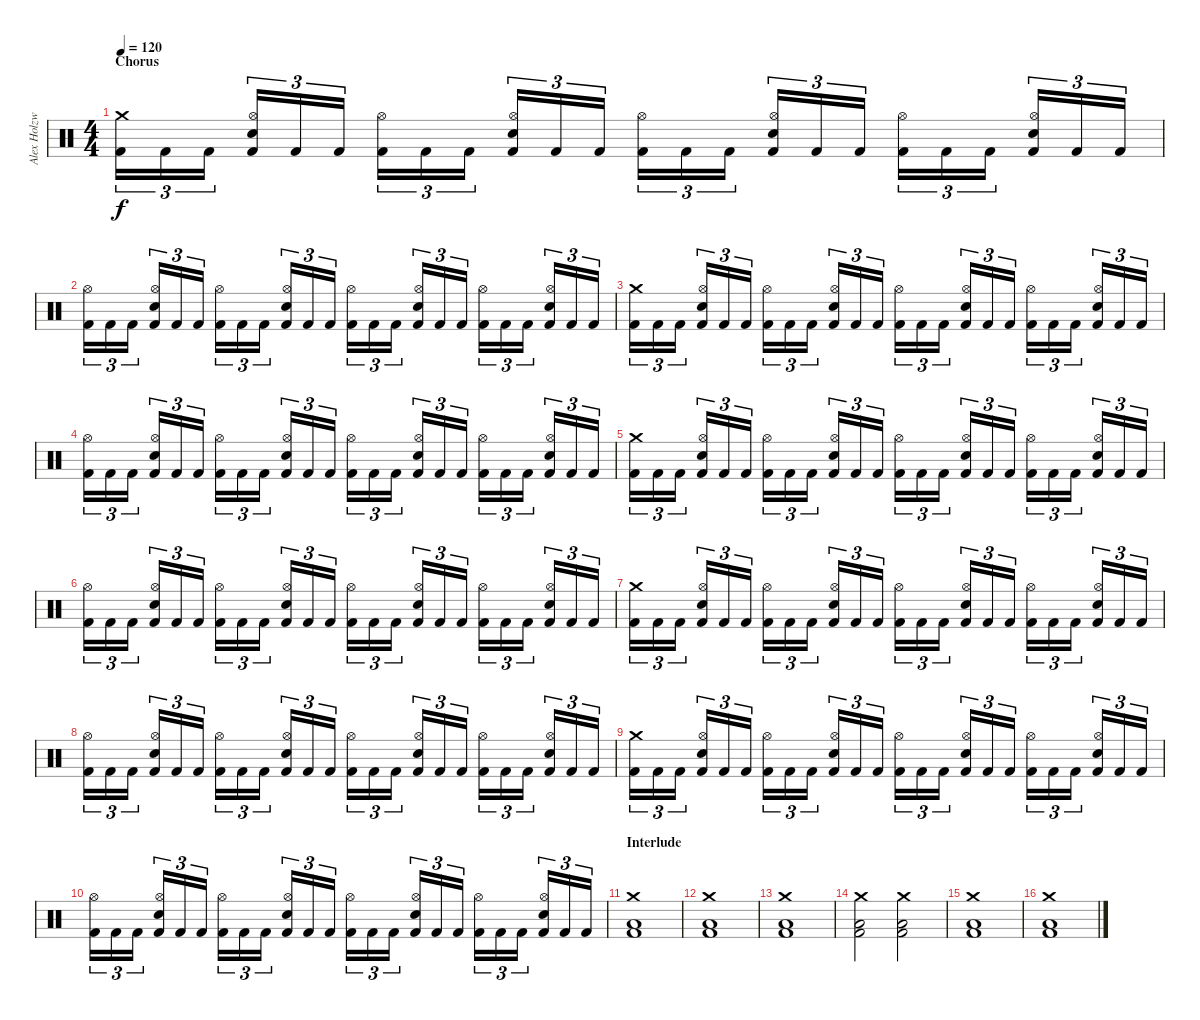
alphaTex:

\track ("Alex Holzwarth - Drums" "Alex Holzw") {instrument percussion}
\staff {score}
\articulation defaults
\ts (4 4)
\section ("" "Chorus")
\tempo 120
\clef neutral
\ks c
("Crash medium (hit)" "Kick (hit) 2").16{tu (3 2) dy f} "Kick (hit) 2".16{tu (3 2)} "Kick (hit) 2".16{tu (3 2)} ("Hi-Hat (open)" "Electric Snare (hit)" "Kick (hit) 2").16{tu (3 2)} "Kick (hit) 2".16{tu (3 2)} "Kick (hit) 2".16{tu (3 2)} ("Hi-Hat (open)" "Kick (hit) 2").16{tu (3 2)} "Kick (hit) 2".16{tu (3 2)} "Kick (hit) 2".16{tu (3 2)} ("Hi-Hat (open)" "Electric Snare (hit)" "Kick (hit) 2").16{tu (3 2)} "Kick (hit) 2".16{tu (3 2)} "Kick (hit) 2".16{tu (3 2)} ("Hi-Hat (open)" "Kick (hit) 2").16{tu (3 2)} "Kick (hit) 2".16{tu (3 2)} "Kick (hit) 2".16{tu (3 2)} ("Hi-Hat (open)" "Electric Snare (hit)" "Kick (hit) 2").16{tu (3 2)} "Kick (hit) 2".16{tu (3 2)} "Kick (hit) 2".16{tu (3 2)} ("Hi-Hat (open)" "Kick (hit) 2").16{tu (3 2)} "Kick (hit) 2".16{tu (3 2)} "Kick (hit) 2".16{tu (3 2)} ("Hi-Hat (open)" "Electric Snare (hit)" "Kick (hit) 2").16{tu (3 2)} "Kick (hit) 2".16{tu (3 2)} "Kick (hit) 2".16{tu (3 2)} |
("Hi-Hat (open)" "Kick (hit) 2").16{tu (3 2)} "Kick (hit) 2".16{tu (3 2)} "Kick (hit) 2".16{tu (3 2)} ("Hi-Hat (open)" "Electric Snare (hit)" "Kick (hit) 2").16{tu (3 2)} "Kick (hit) 2".16{tu (3 2)} "Kick (hit) 2".16{tu (3 2)} ("Hi-Hat (open)" "Kick (hit) 2").16{tu (3 2)} "Kick (hit) 2".16{tu (3 2)} "Kick (hit) 2".16{tu (3 2)} ("Hi-Hat (open)" "Electric Snare (hit)" "Kick (hit) 2").16{tu (3 2)} "Kick (hit) 2".16{tu (3 2)} "Kick (hit) 2".16{tu (3 2)} ("Hi-Hat (open)" "Kick (hit) 2").16{tu (3 2)} "Kick (hit) 2".16{tu (3 2)} "Kick (hit) 2".16{tu (3 2)} ("Hi-Hat (open)" "Electric Snare (hit)" "Kick (hit) 2").16{tu (3 2)} "Kick (hit) 2".16{tu (3 2)} "Kick (hit) 2".16{tu (3 2)} ("Hi-Hat (open)" "Kick (hit) 2").16{tu (3 2)} "Kick (hit) 2".16{tu (3 2)} "Kick (hit) 2".16{tu (3 2)} ("Hi-Hat (open)" "Electric Snare (hit)" "Kick (hit) 2").16{tu (3 2)} "Kick (hit) 2".16{tu (3 2)} "Kick (hit) 2".16{tu (3 2)} |
("Crash medium (hit)" "Kick (hit) 2").16{tu (3 2)} "Kick (hit) 2".16{tu (3 2)} "Kick (hit) 2".16{tu (3 2)} ("Hi-Hat (open)" "Electric Snare (hit)" "Kick (hit) 2").16{tu (3 2)} "Kick (hit) 2".16{tu (3 2)} "Kick (hit) 2".16{tu (3 2)} ("Hi-Hat (open)" "Kick (hit) 2").16{tu (3 2)} "Kick (hit) 2".16{tu (3 2)} "Kick (hit) 2".16{tu (3 2)} ("Hi-Hat (open)" "Electric Snare (hit)" "Kick (hit) 2").16{tu (3 2)} "Kick (hit) 2".16{tu (3 2)} "Kick (hit) 2".16{tu (3 2)} ("Hi-Hat (open)" "Kick (hit) 2").16{tu (3 2)} "Kick (hit) 2".16{tu (3 2)} "Kick (hit) 2".16{tu (3 2)} ("Hi-Hat (open)" "Electric Snare (hit)" "Kick (hit) 2").16{tu (3 2)} "Kick (hit) 2".16{tu (3 2)} "Kick (hit) 2".16{tu (3 2)} ("Hi-Hat (open)" "Kick (hit) 2").16{tu (3 2)} "Kick (hit) 2".16{tu (3 2)} "Kick (hit) 2".16{tu (3 2)} ("Hi-Hat (open)" "Electric Snare (hit)" "Kick (hit) 2").16{tu (3 2)} "Kick (hit) 2".16{tu (3 2)} "Kick (hit) 2".16{tu (3 2)} |
("Hi-Hat (open)" "Kick (hit) 2").16{tu (3 2)} "Kick (hit) 2".16{tu (3 2)} "Kick (hit) 2".16{tu (3 2)} ("Hi-Hat (open)" "Electric Snare (hit)" "Kick (hit) 2").16{tu (3 2)} "Kick (hit) 2".16{tu (3 2)} "Kick (hit) 2".16{tu (3 2)} ("Hi-Hat (open)" "Kick (hit) 2").16{tu (3 2)} "Kick (hit) 2".16{tu (3 2)} "Kick (hit) 2".16{tu (3 2)} ("Hi-Hat (open)" "Electric Snare (hit)" "Kick (hit) 2").16{tu (3 2)} "Kick (hit) 2".16{tu (3 2)} "Kick (hit) 2".16{tu (3 2)} ("Hi-Hat (open)" "Kick (hit) 2").16{tu (3 2)} "Kick (hit) 2".16{tu (3 2)} "Kick (hit) 2".16{tu (3 2)} ("Hi-Hat (open)" "Electric Snare (hit)" "Kick (hit) 2").16{tu (3 2)} "Kick (hit) 2".16{tu (3 2)} "Kick (hit) 2".16{tu (3 2)} ("Hi-Hat (open)" "Kick (hit) 2").16{tu (3 2)} "Kick (hit) 2".16{tu (3 2)} "Kick (hit) 2".16{tu (3 2)} ("Hi-Hat (open)" "Electric Snare (hit)" "Kick (hit) 2").16{tu (3 2)} "Kick (hit) 2".16{tu (3 2)} "Kick (hit) 2".16{tu (3 2)} |
("Crash medium (hit)" "Kick (hit) 2").16{tu (3 2)} "Kick (hit) 2".16{tu (3 2)} "Kick (hit) 2".16{tu (3 2)} ("Hi-Hat (open)" "Electric Snare (hit)" "Kick (hit) 2").16{tu (3 2)} "Kick (hit) 2".16{tu (3 2)} "Kick (hit) 2".16{tu (3 2)} ("Hi-Hat (open)" "Kick (hit) 2").16{tu (3 2)} "Kick (hit) 2".16{tu (3 2)} "Kick (hit) 2".16{tu (3 2)} ("Hi-Hat (open)" "Electric Snare (hit)" "Kick (hit) 2").16{tu (3 2)} "Kick (hit) 2".16{tu (3 2)} "Kick (hit) 2".16{tu (3 2)} ("Hi-Hat (open)" "Kick (hit) 2").16{tu (3 2)} "Kick (hit) 2".16{tu (3 2)} "Kick (hit) 2".16{tu (3 2)} ("Hi-Hat (open)" "Electric Snare (hit)" "Kick (hit) 2").16{tu (3 2)} "Kick (hit) 2".16{tu (3 2)} "Kick (hit) 2".16{tu (3 2)} ("Hi-Hat (open)" "Kick (hit) 2").16{tu (3 2)} "Kick (hit) 2".16{tu (3 2)} "Kick (hit) 2".16{tu (3 2)} ("Hi-Hat (open)" "Electric Snare (hit)" "Kick (hit) 2").16{tu (3 2)} "Kick (hit) 2".16{tu (3 2)} "Kick (hit) 2".16{tu (3 2)} |
("Hi-Hat (open)" "Kick (hit) 2").16{tu (3 2)} "Kick (hit) 2".16{tu (3 2)} "Kick (hit) 2".16{tu (3 2)} ("Hi-Hat (open)" "Electric Snare (hit)" "Kick (hit) 2").16{tu (3 2)} "Kick (hit) 2".16{tu (3 2)} "Kick (hit) 2".16{tu (3 2)} ("Hi-Hat (open)" "Kick (hit) 2").16{tu (3 2)} "Kick (hit) 2".16{tu (3 2)} "Kick (hit) 2".16{tu (3 2)} ("Hi-Hat (open)" "Electric Snare (hit)" "Kick (hit) 2").16{tu (3 2)} "Kick (hit) 2".16{tu (3 2)} "Kick (hit) 2".16{tu (3 2)} ("Hi-Hat (open)" "Kick (hit) 2").16{tu (3 2)} "Kick (hit) 2".16{tu (3 2)} "Kick (hit) 2".16{tu (3 2)} ("Hi-Hat (open)" "Electric Snare (hit)" "Kick (hit) 2").16{tu (3 2)} "Kick (hit) 2".16{tu (3 2)} "Kick (hit) 2".16{tu (3 2)} ("Hi-Hat (open)" "Kick (hit) 2").16{tu (3 2)} "Kick (hit) 2".16{tu (3 2)} "Kick (hit) 2".16{tu (3 2)} ("Hi-Hat (open)" "Electric Snare (hit)" "Kick (hit) 2").16{tu (3 2)} "Kick (hit) 2".16{tu (3 2)} "Kick (hit) 2".16{tu (3 2)} |
("Crash medium (hit)" "Kick (hit) 2").16{tu (3 2)} "Kick (hit) 2".16{tu (3 2)} "Kick (hit) 2".16{tu (3 2)} ("Hi-Hat (open)" "Electric Snare (hit)" "Kick (hit) 2").16{tu (3 2)} "Kick (hit) 2".16{tu (3 2)} "Kick (hit) 2".16{tu (3 2)} ("Hi-Hat (open)" "Kick (hit) 2").16{tu (3 2)} "Kick (hit) 2".16{tu (3 2)} "Kick (hit) 2".16{tu (3 2)} ("Hi-Hat (open)" "Electric Snare (hit)" "Kick (hit) 2").16{tu (3 2)} "Kick (hit) 2".16{tu (3 2)} "Kick (hit) 2".16{tu (3 2)} ("Hi-Hat (open)" "Kick (hit) 2").16{tu (3 2)} "Kick (hit) 2".16{tu (3 2)} "Kick (hit) 2".16{tu (3 2)} ("Hi-Hat (open)" "Electric Snare (hit)" "Kick (hit) 2").16{tu (3 2)} "Kick (hit) 2".16{tu (3 2)} "Kick (hit) 2".16{tu (3 2)} ("Hi-Hat (open)" "Kick (hit) 2").16{tu (3 2)} "Kick (hit) 2".16{tu (3 2)} "Kick (hit) 2".16{tu (3 2)} ("Hi-Hat (open)" "Electric Snare (hit)" "Kick (hit) 2").16{tu (3 2)} "Kick (hit) 2".16{tu (3 2)} "Kick (hit) 2".16{tu (3 2)} |
("Hi-Hat (open)" "Kick (hit) 2").16{tu (3 2)} "Kick (hit) 2".16{tu (3 2)} "Kick (hit) 2".16{tu (3 2)} ("Hi-Hat (open)" "Electric Snare (hit)" "Kick (hit) 2").16{tu (3 2)} "Kick (hit) 2".16{tu (3 2)} "Kick (hit) 2".16{tu (3 2)} ("Hi-Hat (open)" "Kick (hit) 2").16{tu (3 2)} "Kick (hit) 2".16{tu (3 2)} "Kick (hit) 2".16{tu (3 2)} ("Hi-Hat (open)" "Electric Snare (hit)" "Kick (hit) 2").16{tu (3 2)} "Kick (hit) 2".16{tu (3 2)} "Kick (hit) 2".16{tu (3 2)} ("Hi-Hat (open)" "Kick (hit) 2").16{tu (3 2)} "Kick (hit) 2".16{tu (3 2)} "Kick (hit) 2".16{tu (3 2)} ("Hi-Hat (open)" "Electric Snare (hit)" "Kick (hit) 2").16{tu (3 2)} "Kick (hit) 2".16{tu (3 2)} "Kick (hit) 2".16{tu (3 2)} ("Hi-Hat (open)" "Kick (hit) 2").16{tu (3 2)} "Kick (hit) 2".16{tu (3 2)} "Kick (hit) 2".16{tu (3 2)} ("Hi-Hat (open)" "Electric Snare (hit)" "Kick (hit) 2").16{tu (3 2)} "Kick (hit) 2".16{tu (3 2)} "Kick (hit) 2".16{tu (3 2)} |
("Crash medium (hit)" "Kick (hit) 2").16{tu (3 2)} "Kick (hit) 2".16{tu (3 2)} "Kick (hit) 2".16{tu (3 2)} ("Hi-Hat (open)" "Electric Snare (hit)" "Kick (hit) 2").16{tu (3 2)} "Kick (hit) 2".16{tu (3 2)} "Kick (hit) 2".16{tu (3 2)} ("Hi-Hat (open)" "Kick (hit) 2").16{tu (3 2)} "Kick (hit) 2".16{tu (3 2)} "Kick (hit) 2".16{tu (3 2)} ("Hi-Hat (open)" "Electric Snare (hit)" "Kick (hit) 2").16{tu (3 2)} "Kick (hit) 2".16{tu (3 2)} "Kick (hit) 2".16{tu (3 2)} ("Hi-Hat (open)" "Kick (hit) 2").16{tu (3 2)} "Kick (hit) 2".16{tu (3 2)} "Kick (hit) 2".16{tu (3 2)} ("Hi-Hat (open)" "Electric Snare (hit)" "Kick (hit) 2").16{tu (3 2)} "Kick (hit) 2".16{tu (3 2)} "Kick (hit) 2".16{tu (3 2)} ("Hi-Hat (open)" "Kick (hit) 2").16{tu (3 2)} "Kick (hit) 2".16{tu (3 2)} "Kick (hit) 2".16{tu (3 2)} ("Hi-Hat (open)" "Electric Snare (hit)" "Kick (hit) 2").16{tu (3 2)} "Kick (hit) 2".16{tu (3 2)} "Kick (hit) 2".16{tu (3 2)} |
("Hi-Hat (open)" "Kick (hit) 2").16{tu (3 2)} "Kick (hit) 2".16{tu (3 2)} "Kick (hit) 2".16{tu (3 2)} ("Hi-Hat (open)" "Electric Snare (hit)" "Kick (hit) 2").16{tu (3 2)} "Kick (hit) 2".16{tu (3 2)} "Kick (hit) 2".16{tu (3 2)} ("Hi-Hat (open)" "Kick (hit) 2").16{tu (3 2)} "Kick (hit) 2".16{tu (3 2)} "Kick (hit) 2".16{tu (3 2)} ("Hi-Hat (open)" "Electric Snare (hit)" "Kick (hit) 2").16{tu (3 2)} "Kick (hit) 2".16{tu (3 2)} "Kick (hit) 2".16{tu (3 2)} ("Hi-Hat (open)" "Kick (hit) 2").16{tu (3 2)} "Kick (hit) 2".16{tu (3 2)} "Kick (hit) 2".16{tu (3 2)} ("Hi-Hat (open)" "Electric Snare (hit)" "Kick (hit) 2").16{tu (3 2)} "Kick (hit) 2".16{tu (3 2)} "Kick (hit) 2".16{tu (3 2)} ("Hi-Hat (open)" "Kick (hit) 2").16{tu (3 2)} "Kick (hit) 2".16{tu (3 2)} "Kick (hit) 2".16{tu (3 2)} ("Hi-Hat (open)" "Electric Snare (hit)" "Kick (hit) 2").16{tu (3 2)} "Kick (hit) 2".16{tu (3 2)} "Kick (hit) 2".16{tu (3 2)} |
\section ("" "Interlude")
("Crash medium (hit)" "Low Floor Tom (hit)" "Kick (hit) 2").1 |
("Crash medium (hit)" "Low Floor Tom (hit)" "Kick (hit) 2").1 |
("Crash medium (hit)" "Low Floor Tom (hit)" "Kick (hit) 2").1 |
("Crash medium (hit)" "Low Floor Tom (hit)" "Kick (hit) 2").2 ("Crash medium (hit)" "Low Floor Tom (hit)" "Kick (hit) 2").2 |
("Crash medium (hit)" "Low Floor Tom (hit)" "Kick (hit) 2").1 |
("Crash medium (hit)" "Low Floor Tom (hit)" "Kick (hit) 2").1
